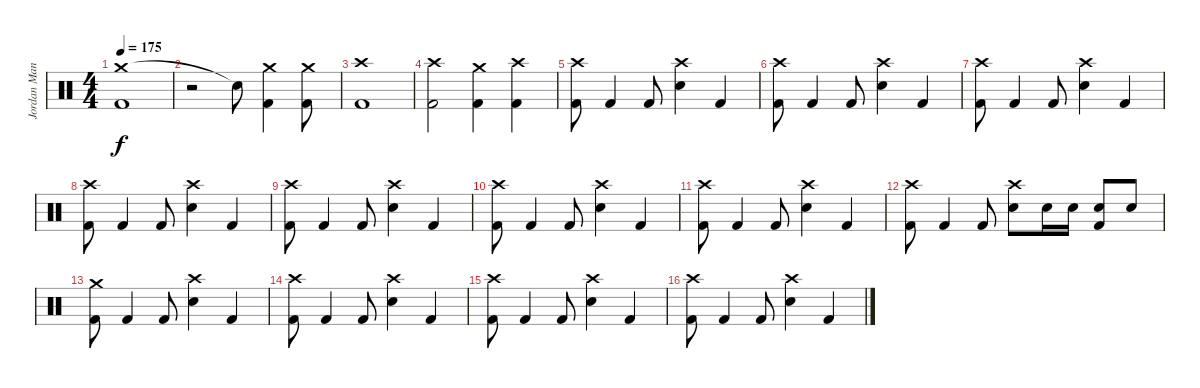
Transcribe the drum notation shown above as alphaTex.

\track ("Jordan Mancino" "Jordan Man") {instrument percussion}
\staff {score}
\articulation defaults
\ts (4 4)
\tempo 175
\clef neutral
\ks c
("Crash medium (hit)" "Kick (hit) 2").1{dy f} |
r.2 "Snare (hit)"{t}.8 ("Crash medium (hit)" "Kick (hit) 2").4 ("Crash medium (hit)" "Kick (hit) 2").8 |
("Crash high (hit)" "Kick (hit) 2").1 |
("Crash high (hit)" "Kick (hit) 2").2 ("Crash medium (hit)" "Kick (hit) 2").4 ("Crash high (hit)" "Kick (hit) 2").4 |
("Crash high (hit)" "Kick (hit) 2").8 "Kick (hit) 2".4 "Kick (hit) 2".8 ("Crash high (hit)" "Electric Snare (hit)").4 "Kick (hit) 2".4 |
("Crash high (hit)" "Kick (hit) 2").8 "Kick (hit) 2".4 "Kick (hit) 2".8 ("Crash high (hit)" "Electric Snare (hit)").4 "Kick (hit) 2".4 |
("Crash high (hit)" "Kick (hit) 2").8 "Kick (hit) 2".4 "Kick (hit) 2".8 ("Crash high (hit)" "Electric Snare (hit)").4 "Kick (hit) 2".4 |
("Crash high (hit)" "Kick (hit) 2").8 "Kick (hit) 2".4 "Kick (hit) 2".8 ("Crash high (hit)" "Electric Snare (hit)").4 "Kick (hit) 2".4 |
("Crash high (hit)" "Kick (hit) 2").8 "Kick (hit) 2".4 "Kick (hit) 2".8 ("Crash high (hit)" "Electric Snare (hit)").4 "Kick (hit) 2".4 |
("Crash high (hit)" "Kick (hit) 2").8 "Kick (hit) 2".4 "Kick (hit) 2".8 ("Crash high (hit)" "Electric Snare (hit)").4 "Kick (hit) 2".4 |
("Crash high (hit)" "Kick (hit) 2").8 "Kick (hit) 2".4 "Kick (hit) 2".8 ("Crash high (hit)" "Electric Snare (hit)").4 "Kick (hit) 2".4 |
("Crash high (hit)" "Kick (hit) 2").8 "Kick (hit) 2".4 "Kick (hit) 2".8 ("Crash high (hit)" "Electric Snare (hit)").8 "Electric Snare (hit)".16 "Electric Snare (hit)".16 ("Electric Snare (hit)" "Kick (hit) 2").8 "Electric Snare (hit)".8 |
("Crash medium (hit)" "Kick (hit) 2").8 "Kick (hit) 2".4 "Kick (hit) 2".8 ("Crash high (hit)" "Electric Snare (hit)").4 "Kick (hit) 2".4 |
("Crash high (hit)" "Kick (hit) 2").8 "Kick (hit) 2".4 "Kick (hit) 2".8 ("Crash high (hit)" "Electric Snare (hit)").4 "Kick (hit) 2".4 |
("Crash high (hit)" "Kick (hit) 2").8 "Kick (hit) 2".4 "Kick (hit) 2".8 ("Crash high (hit)" "Electric Snare (hit)").4 "Kick (hit) 2".4 |
("Crash high (hit)" "Kick (hit) 2").8 "Kick (hit) 2".4 "Kick (hit) 2".8 ("Crash high (hit)" "Electric Snare (hit)").4 "Kick (hit) 2".4
